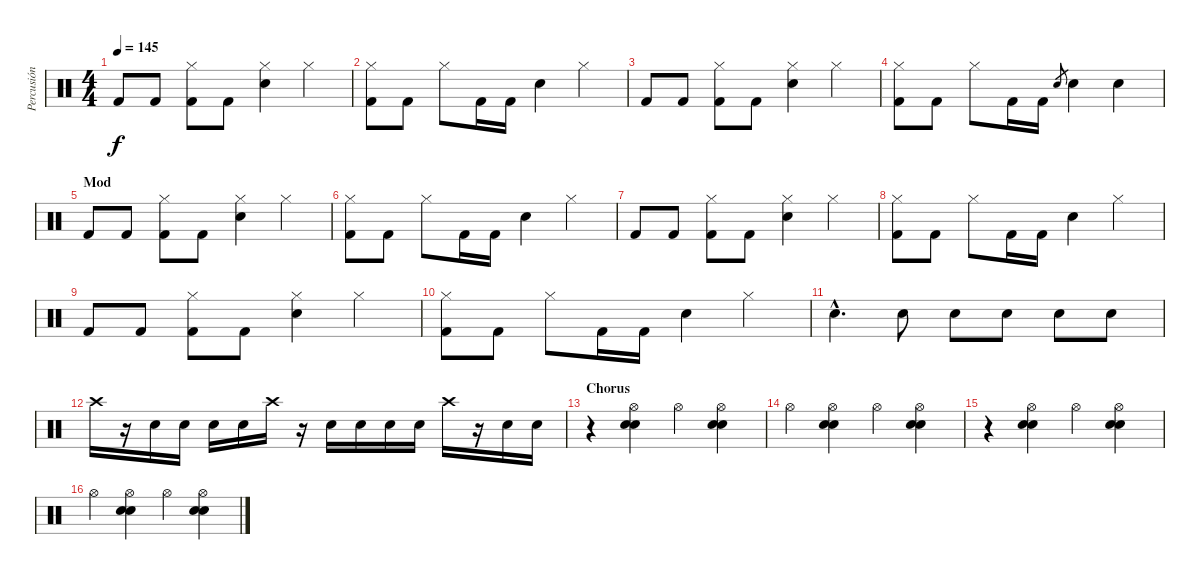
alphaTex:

\track ("Percusión" "Percusión") {instrument percussion}
\staff {score}
\articulation defaults
\ts (4 4)
\tempo 145
\clef neutral
\ks c "Kick (hit) 2".8{dy f} "Kick (hit) 2".8
("Hi-Hat (closed)" "Kick (hit) 2").8 "Kick (hit) 2".8 ("Hi-Hat (closed)" "Snare (hit) 2").4 "Hi-Hat (closed)".4 |
("Hi-Hat (closed)" "Kick (hit) 2").8 "Kick (hit) 2".8 "Hi-Hat (closed)".8 "Kick (hit) 2".16 "Kick (hit) 2".16 "Snare (hit) 2".4 "Hi-Hat (closed)".4 |
"Kick (hit) 2".8 "Kick (hit) 2".8 ("Hi-Hat (closed)" "Kick (hit) 2").8 "Kick (hit) 2".8 ("Hi-Hat (closed)" "Snare (hit) 2").4 "Hi-Hat (closed)".4 |
("Hi-Hat (closed)" "Kick (hit) 2").8 "Kick (hit) 2".8 "Hi-Hat (closed)".8 "Kick (hit) 2".16 "Kick (hit) 2".16 "Snare (hit) 2".8{gr} "Snare (hit) 2".4 "Snare (hit) 2".4 |
\section ("" "Mod")
"Kick (hit) 2".8 "Kick (hit) 2".8 ("Hi-Hat (closed)" "Kick (hit) 2").8 "Kick (hit) 2".8 ("Hi-Hat (closed)" "Snare (hit) 2").4 "Hi-Hat (closed)".4 |
("Hi-Hat (closed)" "Kick (hit) 2").8 "Kick (hit) 2".8 "Hi-Hat (closed)".8 "Kick (hit) 2".16 "Kick (hit) 2".16 "Snare (hit) 2".4 "Hi-Hat (closed)".4 |
"Kick (hit) 2".8 "Kick (hit) 2".8 ("Hi-Hat (closed)" "Kick (hit) 2").8 "Kick (hit) 2".8 ("Hi-Hat (closed)" "Snare (hit) 2").4 "Hi-Hat (closed)".4 |
("Hi-Hat (closed)" "Kick (hit) 2").8 "Kick (hit) 2".8 "Hi-Hat (closed)".8 "Kick (hit) 2".16 "Kick (hit) 2".16 "Snare (hit) 2".4 "Hi-Hat (closed)".4 |
"Kick (hit) 2".8 "Kick (hit) 2".8 ("Hi-Hat (closed)" "Kick (hit) 2").8 "Kick (hit) 2".8 ("Hi-Hat (closed)" "Snare (hit) 2").4 "Hi-Hat (closed)".4 |
("Hi-Hat (closed)" "Kick (hit) 2").8 "Kick (hit) 2".8 "Hi-Hat (closed)".8 "Kick (hit) 2".16 "Kick (hit) 2".16 "Snare (hit) 2".4 "Hi-Hat (closed)".4 |
"Snare (hit) 2"{hac}.4{d} "Snare (hit) 2".8 "Snare (hit) 2".8 "Snare (hit) 2".8 "Snare (hit) 2".8 "Snare (hit) 2".8 |
"Crash high (hit)".16 r.16 "Snare (hit) 2".16 "Snare (hit) 2".16 "Snare (hit) 2".16 "Snare (hit) 2".16 "Crash high (hit)".16 r.16 "Snare (hit) 2".16 "Snare (hit) 2".16 "Snare (hit) 2".16 "Snare (hit) 2".16 "Crash high (hit)".16 r.16 "Snare (hit) 2".16 "Snare (hit) 2".16 |
\section ("" "Chorus")
r.4 ("Hi-Hat (open)" "Snare (hit) 2" "Snare (hit) 2").4 "Hi-Hat (open)".4 ("Hi-Hat (open)" "Snare (hit) 2" "Snare (hit) 2").4 |
"Hi-Hat (open)".4 ("Hi-Hat (open)" "Snare (hit) 2" "Snare (hit) 2").4 "Hi-Hat (open)".4 ("Hi-Hat (open)" "Snare (hit) 2" "Snare (hit) 2").4 |
r.4 ("Hi-Hat (open)" "Snare (hit) 2" "Snare (hit) 2").4 "Hi-Hat (open)".4 ("Hi-Hat (open)" "Snare (hit) 2" "Snare (hit) 2").4 |
"Hi-Hat (open)".4 ("Hi-Hat (open)" "Snare (hit) 2" "Snare (hit) 2").4 "Hi-Hat (open)".4 ("Hi-Hat (open)" "Snare (hit) 2" "Snare (hit) 2").4
